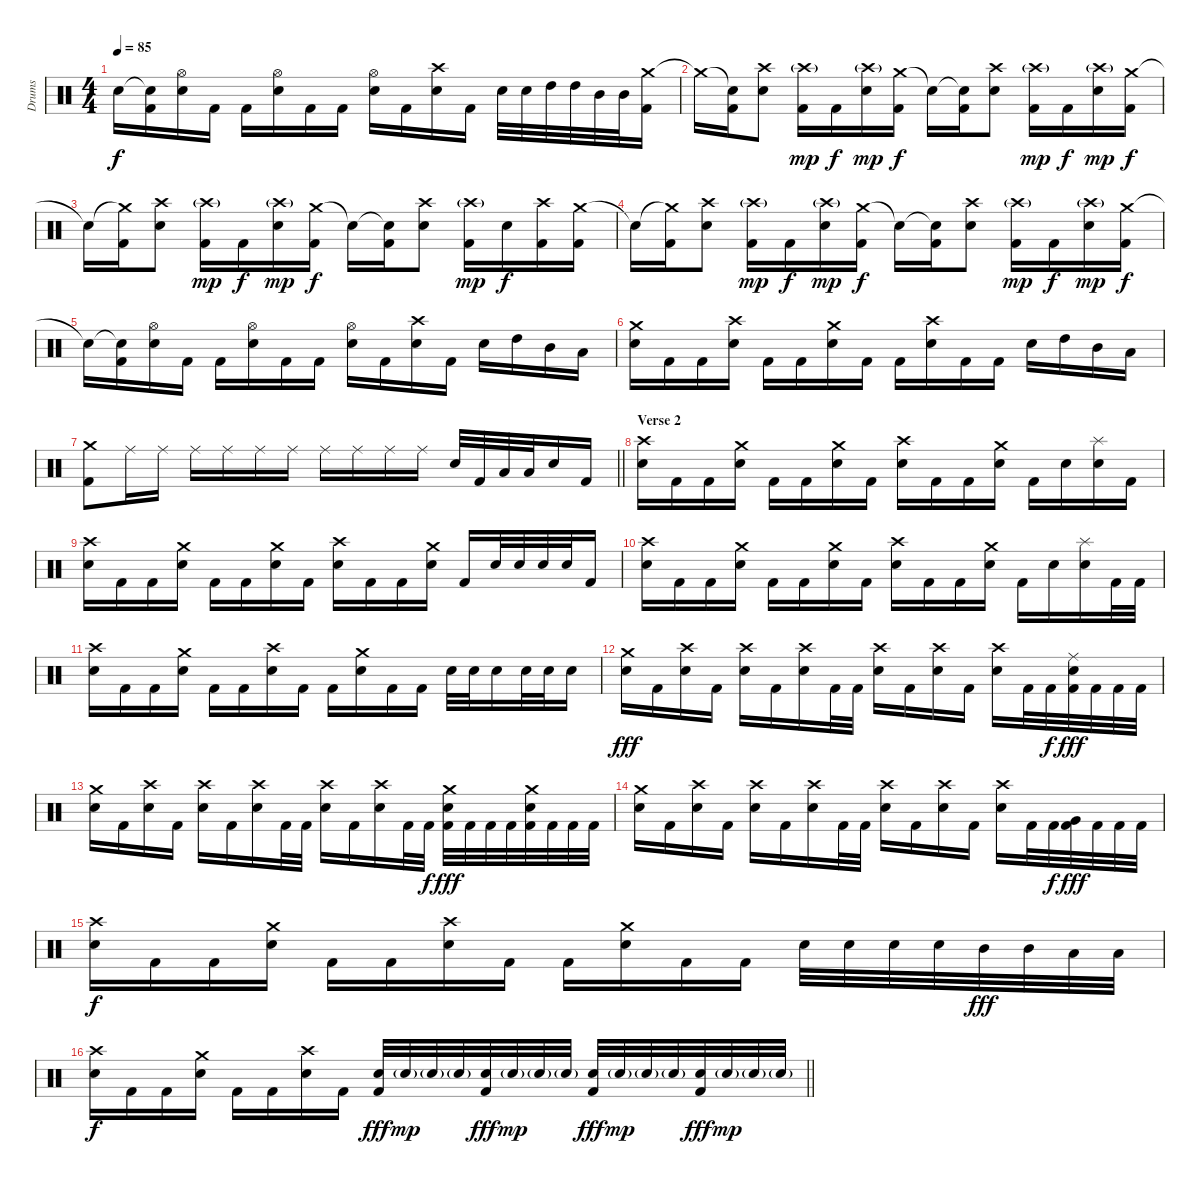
\track ("Drums" "Drums") {instrument percussion}
\staff {score}
\articulation defaults
\ts (4 4)
\tempo 85
\clef neutral
\ks c "Snare (hit)"{t}.16{dy f}
("Snare (hit)"{t} "Kick (hit) 2").16 ("Hi-Hat (open)" "Electric Snare (hit)").16 "Kick (hit) 2".16 "Kick (hit) 2".16 ("Hi-Hat (open)" "Electric Snare (hit)").16 "Kick (hit) 2".16 "Kick (hit) 2".16 ("Hi-Hat (open)" "Electric Snare (hit)").16 "Kick (hit) 2".16 ("Crash high (hit)" "Electric Snare (hit)").16 "Kick (hit) 2".16 "Electric Snare (hit)".32 "Electric Snare (hit)".32 "High Tom (hit)".32 "High Tom (hit)".32 "Mid Tom (hit)".32 "Mid Tom (hit)".32 ("Crash medium (hit)" "Kick (hit) 2").16 |
"Crash medium (hit)"{t}.16 ("Snare (hit)"{t} "Kick (hit) 2").16 ("Crash high (hit)" "Electric Snare (hit)").8 ("Crash high (hit)"{g} "Kick (hit) 2").16{dy mp} "Kick (hit) 2".16{dy f} ("Crash high (hit)"{g} "Electric Snare (hit)").16{dy mp} ("Crash medium (hit)" "Kick (hit) 2").16{dy f} "Snare (hit)"{t}.16 ("Snare (hit)"{t} "Kick (hit) 2").16 ("Crash high (hit)" "Electric Snare (hit)").8 ("Crash high (hit)"{g} "Kick (hit) 2").16{dy mp} "Kick (hit) 2".16{dy f} ("Crash high (hit)"{g} "Electric Snare (hit)").16{dy mp} ("Crash medium (hit)" "Kick (hit) 2").16{dy f} |
"Snare (hit)"{t}.16 ("Crash medium (hit)"{t} "Kick (hit) 2").16 ("Crash high (hit)" "Electric Snare (hit)").8 ("Crash high (hit)"{g} "Kick (hit) 2").16{dy mp} "Kick (hit) 2".16{dy f} ("Crash high (hit)"{g} "Electric Snare (hit)").16{dy mp} ("Crash medium (hit)" "Kick (hit) 2").16{dy f} "Snare (hit)"{t}.16 ("Snare (hit)"{t} "Kick (hit) 2").16 ("Crash high (hit)" "Electric Snare (hit)").8 ("Crash high (hit)"{g} "Kick (hit) 2").16{dy mp} "Electric Snare (hit)".16{dy f} ("Crash high (hit)" "Kick (hit) 2").16 ("Crash medium (hit)" "Kick (hit) 2").16 |
"Snare (hit)"{t}.16 ("Crash medium (hit)"{t} "Kick (hit) 2").16 ("Crash high (hit)" "Electric Snare (hit)").8 ("Crash high (hit)"{g} "Kick (hit) 2").16{dy mp} "Kick (hit) 2".16{dy f} ("Crash high (hit)"{g} "Electric Snare (hit)").16{dy mp} ("Crash medium (hit)" "Kick (hit) 2").16{dy f} "Snare (hit)"{t}.16 ("Snare (hit)"{t} "Kick (hit) 2").16 ("Crash high (hit)" "Electric Snare (hit)").8 ("Crash high (hit)"{g} "Kick (hit) 2").16{dy mp} "Kick (hit) 2".16{dy f} ("Crash high (hit)"{g} "Electric Snare (hit)").16{dy mp} ("Crash medium (hit)" "Kick (hit) 2").16{dy f} |
"Snare (hit)"{t}.16 ("Snare (hit)"{t} "Kick (hit) 2").16 ("Hi-Hat (open)" "Electric Snare (hit)").16 "Kick (hit) 2".16 "Kick (hit) 2".16 ("Hi-Hat (open)" "Electric Snare (hit)").16 "Kick (hit) 2".16 "Kick (hit) 2".16 ("Hi-Hat (open)" "Electric Snare (hit)").16 "Kick (hit) 2".16 ("Crash high (hit)" "Electric Snare (hit)").16 "Kick (hit) 2".16 "Electric Snare (hit)".16 "High Tom (hit)".16 "Mid Tom (hit)".16 "Low Tom (hit)".16 |
("Crash medium (hit)" "Electric Snare (hit)").16 "Kick (hit) 2".16 "Kick (hit) 2".16 ("Crash high (hit)" "Electric Snare (hit)").16 "Kick (hit) 2".16 "Kick (hit) 2".16 ("Crash medium (hit)" "Electric Snare (hit)").16 "Kick (hit) 2".16 "Kick (hit) 2".16 ("Crash high (hit)" "Electric Snare (hit)").16 "Kick (hit) 2".16 "Kick (hit) 2".16 "Electric Snare (hit)".16 "High Tom (hit)".16 "Mid Tom (hit)".16 "Low Tom (hit)".16 |
\barLineRight lightlight
("Crash medium (hit)" "Kick (hit) 2").8 "Ride (middle)".16 "Ride (middle)".16 "Ride (middle)".16 "Ride (middle)".16 "Ride (middle)".16 "Ride (middle)".16 "Ride (middle)".16 "Ride (middle)".16 "Ride (middle)".16 "Ride (middle)".16 "Electric Snare (hit)".32 "Kick (hit) 2".32 "Low Tom (hit)".32 "Low Tom (hit)".32 "Electric Snare (hit)".16 "Kick (hit) 2".16 |
\section ("" "Verse 2")
("Crash high (hit)" "Electric Snare (hit)").16 "Kick (hit) 2".16 "Kick (hit) 2".16 ("Crash medium (hit)" "Electric Snare (hit)").16 "Kick (hit) 2".16 "Kick (hit) 2".16 ("Crash medium (hit)" "Electric Snare (hit)").16 "Kick (hit) 2".16 ("Crash high (hit)" "Electric Snare (hit)").16 "Kick (hit) 2".16 "Kick (hit) 2".16 ("Crash medium (hit)" "Electric Snare (hit)").16 "Kick (hit) 2".16 "Electric Snare (hit)".16 ("Splash (hit)" "Electric Snare (hit)").16 "Kick (hit) 2".16 |
("Crash high (hit)" "Electric Snare (hit)").16 "Kick (hit) 2".16 "Kick (hit) 2".16 ("Crash medium (hit)" "Electric Snare (hit)").16 "Kick (hit) 2".16 "Kick (hit) 2".16 ("Crash medium (hit)" "Electric Snare (hit)").16 "Kick (hit) 2".16 ("Crash high (hit)" "Electric Snare (hit)").16 "Kick (hit) 2".16 "Kick (hit) 2".16 ("Crash medium (hit)" "Electric Snare (hit)").16 "Kick (hit) 2".16 "Electric Snare (hit)".32 "Electric Snare (hit)".32 "Electric Snare (hit)".32 "Electric Snare (hit)".32 "Kick (hit) 2".16 |
("Crash high (hit)" "Electric Snare (hit)").16 "Kick (hit) 2".16 "Kick (hit) 2".16 ("Crash medium (hit)" "Electric Snare (hit)").16 "Kick (hit) 2".16 "Kick (hit) 2".16 ("Crash medium (hit)" "Electric Snare (hit)").16 "Kick (hit) 2".16 ("Crash high (hit)" "Electric Snare (hit)").16 "Kick (hit) 2".16 "Kick (hit) 2".16 ("Crash medium (hit)" "Electric Snare (hit)").16 "Kick (hit) 2".16 "Electric Snare (hit)".16 ("Splash (hit)" "Electric Snare (hit)").16 "Kick (hit) 2".32 "Kick (hit) 2".32 |
("Crash high (hit)" "Electric Snare (hit)").16 "Kick (hit) 2".16 "Kick (hit) 2".16 ("Crash medium (hit)" "Electric Snare (hit)").16 "Kick (hit) 2".16 "Kick (hit) 2".16 ("Crash high (hit)" "Electric Snare (hit)").16 "Kick (hit) 2".16 "Kick (hit) 2".16 ("Crash medium (hit)" "Electric Snare (hit)").16 "Kick (hit) 2".16 "Kick (hit) 2".16 "Electric Snare (hit)".32 "Electric Snare (hit)".32 "Electric Snare (hit)".16 "Electric Snare (hit)".32 "Electric Snare (hit)".32 "Electric Snare (hit)".16 |
("Crash medium (hit)" "Electric Snare (hit)").16{dy fff} "Kick (hit) 2".16 ("Crash high (hit)" "Electric Snare (hit)").16 "Kick (hit) 2".16 ("Crash high (hit)" "Electric Snare (hit)").16 "Kick (hit) 2".16 ("Crash high (hit)" "Electric Snare (hit)").16 "Kick (hit) 2".32 "Kick (hit) 2".32 ("Crash high (hit)" "Electric Snare (hit)").16 "Kick (hit) 2".16 ("Crash high (hit)" "Electric Snare (hit)").16 "Kick (hit) 2".16 ("Crash high (hit)" "Electric Snare (hit)").16 "Kick (hit) 2".32 "Kick (hit) 2".32{dy f} ("Ride (middle)" "Electric Snare (hit)" "Kick (hit) 2").32{dy fff} "Kick (hit) 2".32 "Kick (hit) 2".32 "Kick (hit) 2".32 |
("Crash medium (hit)" "Electric Snare (hit)").16 "Kick (hit) 2".16 ("Crash high (hit)" "Electric Snare (hit)").16 "Kick (hit) 2".16 ("Crash high (hit)" "Electric Snare (hit)").16 "Kick (hit) 2".16 ("Crash high (hit)" "Electric Snare (hit)").16 "Kick (hit) 2".32 "Kick (hit) 2".32 ("Crash high (hit)" "Electric Snare (hit)").16 "Kick (hit) 2".16 ("Crash high (hit)" "Electric Snare (hit)").16 "Kick (hit) 2".32 "Kick (hit) 2".32{dy f} ("Crash medium (hit)" "Electric Snare (hit)" "Kick (hit) 2").32{dy fff} "Kick (hit) 2".32 "Kick (hit) 2".32 "Kick (hit) 2".32 ("Crash medium (hit)" "Electric Snare (hit)" "Kick (hit) 2").32 "Kick (hit) 2".32 "Kick (hit) 2".32 "Kick (hit) 2".32 |
("Crash medium (hit)" "Electric Snare (hit)").16 "Kick (hit) 2".16 ("Crash high (hit)" "Electric Snare (hit)").16 "Kick (hit) 2".16 ("Crash high (hit)" "Electric Snare (hit)").16 "Kick (hit) 2".16 ("Crash high (hit)" "Electric Snare (hit)").16 "Kick (hit) 2".32 "Kick (hit) 2".32 ("Crash high (hit)" "Electric Snare (hit)").16 "Kick (hit) 2".16 ("Crash high (hit)" "Electric Snare (hit)").16 "Kick (hit) 2".16 ("Crash high (hit)" "Electric Snare (hit)").16 "Kick (hit) 2".32 "Kick (hit) 2".32{dy f} ("Very Low Tom (hit)" "Kick (hit) 2").32{dy fff} "Kick (hit) 2".32 "Kick (hit) 2".32 "Kick (hit) 2".32 |
("Crash high (hit)" "Electric Snare (hit)").16{dy f} "Kick (hit) 2".16 "Kick (hit) 2".16 ("Crash medium (hit)" "Electric Snare (hit)").16 "Kick (hit) 2".16 "Kick (hit) 2".16 ("Crash high (hit)" "Electric Snare (hit)").16 "Kick (hit) 2".16 "Kick (hit) 2".16 ("Crash medium (hit)" "Electric Snare (hit)").16 "Kick (hit) 2".16 "Kick (hit) 2".16 "Electric Snare (hit)".32 "Electric Snare (hit)".32 "Electric Snare (hit)".32 "Electric Snare (hit)".32 "Mid Tom (hit)".32{dy fff} "Mid Tom (hit)".32 "Low Tom (hit)".32 "Low Tom (hit)".32 |
\barLineRight lightlight
("Crash high (hit)" "Electric Snare (hit)").16{dy f} "Kick (hit) 2".16 "Kick (hit) 2".16 ("Crash medium (hit)" "Electric Snare (hit)").16 "Kick (hit) 2".16 "Kick (hit) 2".16 ("Crash high (hit)" "Electric Snare (hit)").16 "Kick (hit) 2".16 ("Electric Snare (hit)" "Kick (hit) 2").32{dy fff} "Electric Snare (hit)"{g}.32{dy mp} "Electric Snare (hit)"{g}.32 "Electric Snare (hit)"{g}.32 ("Electric Snare (hit)" "Kick (hit) 2").32{dy fff} "Electric Snare (hit)"{g}.32{dy mp} "Electric Snare (hit)"{g}.32 "Electric Snare (hit)"{g}.32 ("Electric Snare (hit)" "Kick (hit) 2").32{dy fff} "Electric Snare (hit)"{g}.32{dy mp} "Electric Snare (hit)"{g}.32 "Electric Snare (hit)"{g}.32 ("Electric Snare (hit)" "Kick (hit) 2").32{dy fff} "Electric Snare (hit)"{g}.32{dy mp} "Electric Snare (hit)"{g}.32 "Electric Snare (hit)"{g}.32
